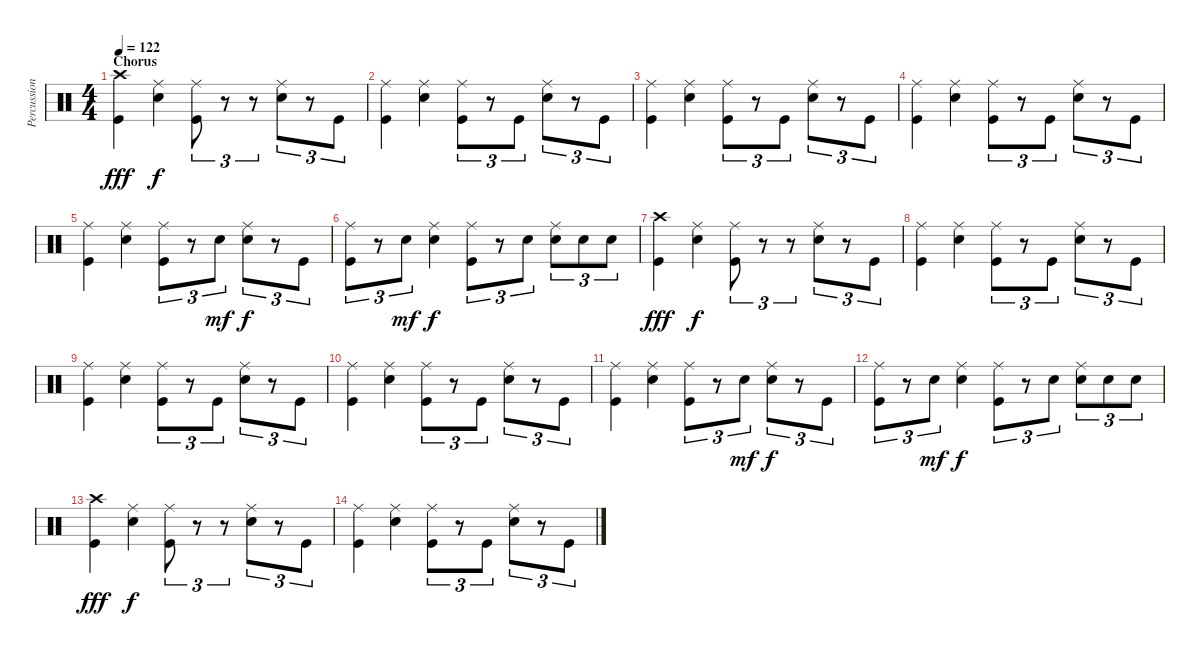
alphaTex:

\track ("Percussion" "Percussion") {instrument percussion}
\staff {score}
\articulation defaults
\ts (4 4)
\section ("" "Chorus")
\tempo 122
\clef neutral
\ks c
("Crash high (hit)" "Kick (hit)").4{dy fff} ("Ride (middle)" "Electric Snare (hit)").4{dy f} ("Ride (middle)" "Kick (hit)").8{tu (3 2)} r.8{tu (3 2)} r.8{tu (3 2)} ("Ride (middle)" "Electric Snare (hit)").8{tu (3 2)} r.8{tu (3 2)} "Kick (hit)".8{tu (3 2)} |
("Ride (middle)" "Kick (hit)").4 ("Ride (middle)" "Electric Snare (hit)").4 ("Ride (middle)" "Kick (hit)").8{tu (3 2)} r.8{tu (3 2)} "Kick (hit)".8{tu (3 2)} ("Ride (middle)" "Electric Snare (hit)").8{tu (3 2)} r.8{tu (3 2)} "Kick (hit)".8{tu (3 2)} |
("Ride (middle)" "Kick (hit)").4 ("Ride (middle)" "Electric Snare (hit)").4 ("Ride (middle)" "Kick (hit)").8{tu (3 2)} r.8{tu (3 2)} "Kick (hit)".8{tu (3 2)} ("Ride (middle)" "Electric Snare (hit)").8{tu (3 2)} r.8{tu (3 2)} "Kick (hit)".8{tu (3 2)} |
("Ride (middle)" "Kick (hit)").4 ("Ride (middle)" "Electric Snare (hit)").4 ("Ride (middle)" "Kick (hit)").8{tu (3 2)} r.8{tu (3 2)} "Kick (hit)".8{tu (3 2)} ("Ride (middle)" "Electric Snare (hit)").8{tu (3 2)} r.8{tu (3 2)} "Kick (hit)".8{tu (3 2)} |
("Ride (middle)" "Kick (hit)").4 ("Ride (middle)" "Electric Snare (hit)").4 ("Ride (middle)" "Kick (hit)").8{tu (3 2)} r.8{tu (3 2)} "Electric Snare (hit)".8{tu (3 2) dy mf} ("Ride (middle)" "Electric Snare (hit)").8{tu (3 2) dy f} r.8{tu (3 2)} "Kick (hit)".8{tu (3 2)} |
("Ride (middle)" "Kick (hit)").8{tu (3 2)} r.8{tu (3 2)} "Electric Snare (hit)".8{tu (3 2) dy mf} ("Ride (middle)" "Electric Snare (hit)").4{dy f} ("Ride (middle)" "Kick (hit)").8{tu (3 2)} r.8{tu (3 2)} "Electric Snare (hit)".8{tu (3 2)} ("Ride (middle)" "Electric Snare (hit)").8{tu (3 2)} "Electric Snare (hit)".8{tu (3 2)} "Electric Snare (hit)".8{tu (3 2)} |
("Crash high (hit)" "Kick (hit)").4{dy fff} ("Ride (middle)" "Electric Snare (hit)").4{dy f} ("Ride (middle)" "Kick (hit)").8{tu (3 2)} r.8{tu (3 2)} r.8{tu (3 2)} ("Ride (middle)" "Electric Snare (hit)").8{tu (3 2)} r.8{tu (3 2)} "Kick (hit)".8{tu (3 2)} |
("Ride (middle)" "Kick (hit)").4 ("Ride (middle)" "Electric Snare (hit)").4 ("Ride (middle)" "Kick (hit)").8{tu (3 2)} r.8{tu (3 2)} "Kick (hit)".8{tu (3 2)} ("Ride (middle)" "Electric Snare (hit)").8{tu (3 2)} r.8{tu (3 2)} "Kick (hit)".8{tu (3 2)} |
("Ride (middle)" "Kick (hit)").4 ("Ride (middle)" "Electric Snare (hit)").4 ("Ride (middle)" "Kick (hit)").8{tu (3 2)} r.8{tu (3 2)} "Kick (hit)".8{tu (3 2)} ("Ride (middle)" "Electric Snare (hit)").8{tu (3 2)} r.8{tu (3 2)} "Kick (hit)".8{tu (3 2)} |
("Ride (middle)" "Kick (hit)").4 ("Ride (middle)" "Electric Snare (hit)").4 ("Ride (middle)" "Kick (hit)").8{tu (3 2)} r.8{tu (3 2)} "Kick (hit)".8{tu (3 2)} ("Ride (middle)" "Electric Snare (hit)").8{tu (3 2)} r.8{tu (3 2)} "Kick (hit)".8{tu (3 2)} |
("Ride (middle)" "Kick (hit)").4 ("Ride (middle)" "Electric Snare (hit)").4 ("Ride (middle)" "Kick (hit)").8{tu (3 2)} r.8{tu (3 2)} "Electric Snare (hit)".8{tu (3 2) dy mf} ("Ride (middle)" "Electric Snare (hit)").8{tu (3 2) dy f} r.8{tu (3 2)} "Kick (hit)".8{tu (3 2)} |
("Ride (middle)" "Kick (hit)").8{tu (3 2)} r.8{tu (3 2)} "Electric Snare (hit)".8{tu (3 2) dy mf} ("Ride (middle)" "Electric Snare (hit)").4{dy f} ("Ride (middle)" "Kick (hit)").8{tu (3 2)} r.8{tu (3 2)} "Electric Snare (hit)".8{tu (3 2)} ("Ride (middle)" "Electric Snare (hit)").8{tu (3 2)} "Electric Snare (hit)".8{tu (3 2)} "Electric Snare (hit)".8{tu (3 2)} |
("Crash high (hit)" "Kick (hit)").4{dy fff} ("Ride (middle)" "Electric Snare (hit)").4{dy f} ("Ride (middle)" "Kick (hit)").8{tu (3 2)} r.8{tu (3 2)} r.8{tu (3 2)} ("Ride (middle)" "Electric Snare (hit)").8{tu (3 2)} r.8{tu (3 2)} "Kick (hit)".8{tu (3 2)} |
("Ride (middle)" "Kick (hit)").4 ("Ride (middle)" "Electric Snare (hit)").4 ("Ride (middle)" "Kick (hit)").8{tu (3 2)} r.8{tu (3 2)} "Kick (hit)".8{tu (3 2)} ("Ride (middle)" "Electric Snare (hit)").8{tu (3 2)} r.8{tu (3 2)} "Kick (hit)".8{tu (3 2)}
